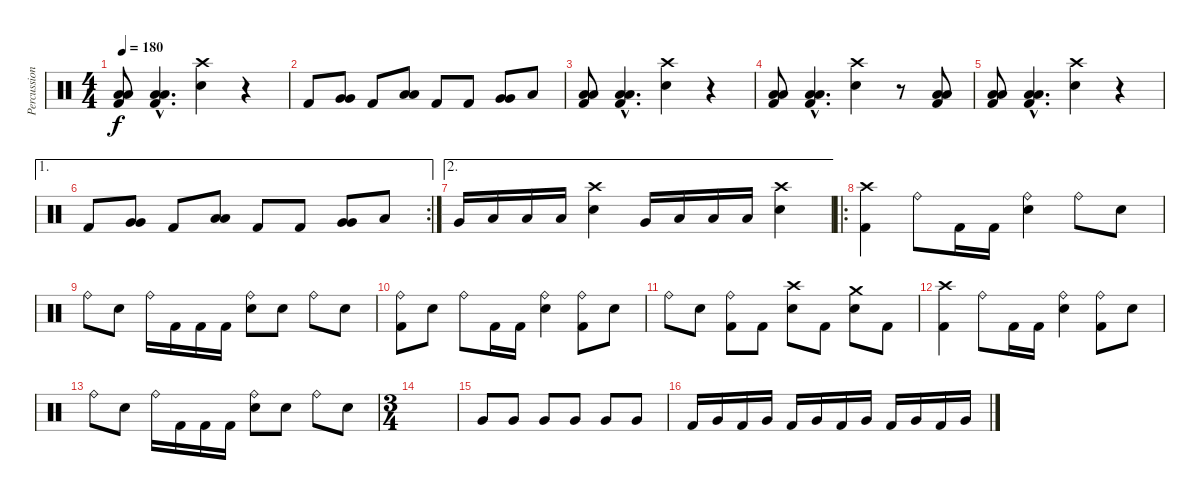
\track ("Percussions" "Percussion") {instrument percussion}
\staff {score}
\articulation defaults
\ts (4 4)
\tempo 180
\clef neutral
\ks c
("Low Floor Tom (hit)" "Low Floor Tom (hit)" "Kick (hit) 2").8{dy f} ("Low Floor Tom (hit)"{hac} "Low Floor Tom (hit)"{hac} "Kick (hit) 2"{hac}).4{d} ("Crash high (hit)" "Snare (hit) 2").4 r.4 |
"Kick (hit) 2".8 ("Very Low Tom (hit)" "Very Low Tom (hit)").8{bd 240} "Kick (hit) 2".8 ("Low Floor Tom (hit)" "Low Floor Tom (hit)").8{bd 240} "Kick (hit) 2".8 "Kick (hit) 2".8 ("Very Low Tom (hit)" "Very Low Tom (hit)").8{bd 240} "Low Floor Tom (hit)".8 |
("Low Floor Tom (hit)" "Low Floor Tom (hit)" "Kick (hit) 2").8 ("Low Floor Tom (hit)"{hac} "Low Floor Tom (hit)"{hac} "Kick (hit) 2"{hac}).4{d} ("Crash high (hit)" "Snare (hit) 2").4 r.4 |
("Low Floor Tom (hit)" "Low Floor Tom (hit)" "Kick (hit) 2").8 ("Low Floor Tom (hit)"{hac} "Low Floor Tom (hit)"{hac} "Kick (hit) 2"{hac}).4{d} ("Crash high (hit)" "Snare (hit) 2").4 r.8 ("Low Floor Tom (hit)" "Low Floor Tom (hit)" "Kick (hit) 2").8 |
("Low Floor Tom (hit)" "Low Floor Tom (hit)" "Kick (hit) 2").8 ("Low Floor Tom (hit)"{hac} "Low Floor Tom (hit)"{hac} "Kick (hit) 2"{hac}).4{d} ("Crash high (hit)" "Snare (hit) 2").4 r.4 |
\ae 1
\rc 2 "Kick (hit) 2".8
("Very Low Tom (hit)" "Very Low Tom (hit)").8{bd 240} "Kick (hit) 2".8 ("Low Floor Tom (hit)" "Low Floor Tom (hit)").8{bd 240} "Kick (hit) 2".8 "Kick (hit) 2".8 ("Very Low Tom (hit)" "Very Low Tom (hit)").8{bd 240} "Low Floor Tom (hit)".8 |
\ae 2 "Very Low Tom (hit)".16 "Low Floor Tom (hit)".16 "Low Floor Tom (hit)".16 "Low Floor Tom (hit)".16
("Crash high (hit)" "Snare (hit) 2").4 "Very Low Tom (hit)".16 "Low Floor Tom (hit)".16 "Low Floor Tom (hit)".16 "Low Floor Tom (hit)".16 ("Crash high (hit)" "Snare (hit) 2").4 |
\ro
("Crash high (hit)" "Kick (hit) 2").4 "Ride (bell)".8 "Kick (hit) 2".16 "Kick (hit) 2".16 ("Ride (bell)" "Snare (hit) 2").4 "Ride (bell)".8 "Snare (hit) 2".8 |
"Ride (bell)".8 "Snare (hit) 2".8 "Ride (bell)".16 "Kick (hit) 2".16 "Kick (hit) 2".16 "Kick (hit) 2".16 ("Ride (bell)" "Snare (hit) 2").8 "Snare (hit) 2".8 "Ride (bell)".8 "Snare (hit) 2".8 |
("Ride (bell)" "Kick (hit) 2").8 "Snare (hit) 2".8 "Ride (bell)".8 "Kick (hit) 2".16 "Kick (hit) 2".16 ("Ride (bell)" "Snare (hit) 2").4 ("Ride (bell)" "Kick (hit) 2").8 "Snare (hit) 2".8 |
"Ride (bell)".8 "Snare (hit) 2".8 ("Ride (bell)" "Kick (hit) 2").8 "Kick (hit) 2".8 ("Crash high (hit)" "Snare (hit) 2").8 "Kick (hit) 2".8 ("Crash medium (hit)" "Snare (hit) 2").8 "Kick (hit) 2".8 |
("Crash high (hit)" "Kick (hit) 2").4 "Ride (bell)".8 "Kick (hit) 2".16 "Kick (hit) 2".16 ("Ride (bell)" "Snare (hit) 2").4 ("Ride (bell)" "Kick (hit) 2").8 "Snare (hit) 2".8 |
"Ride (bell)".8 "Snare (hit) 2".8 "Ride (bell)".16 "Kick (hit) 2".16 "Kick (hit) 2".16 "Kick (hit) 2".16 ("Ride (bell)" "Snare (hit) 2").8 "Snare (hit) 2".8 "Ride (bell)".8 "Snare (hit) 2".8 |
\ts (3 4)
|
"Very Low Tom (hit)".8 "Very Low Tom (hit)".8 "Very Low Tom (hit)".8 "Very Low Tom (hit)".8 "Very Low Tom (hit)".8 "Very Low Tom (hit)".8 |
"Kick (hit) 2".16 "Very Low Tom (hit)".16 "Kick (hit) 2".16 "Very Low Tom (hit)".16 "Kick (hit) 2".16 "Very Low Tom (hit)".16 "Kick (hit) 2".16 "Very Low Tom (hit)".16 "Kick (hit) 2".16 "Very Low Tom (hit)".16 "Kick (hit) 2".16 "Very Low Tom (hit)".16
